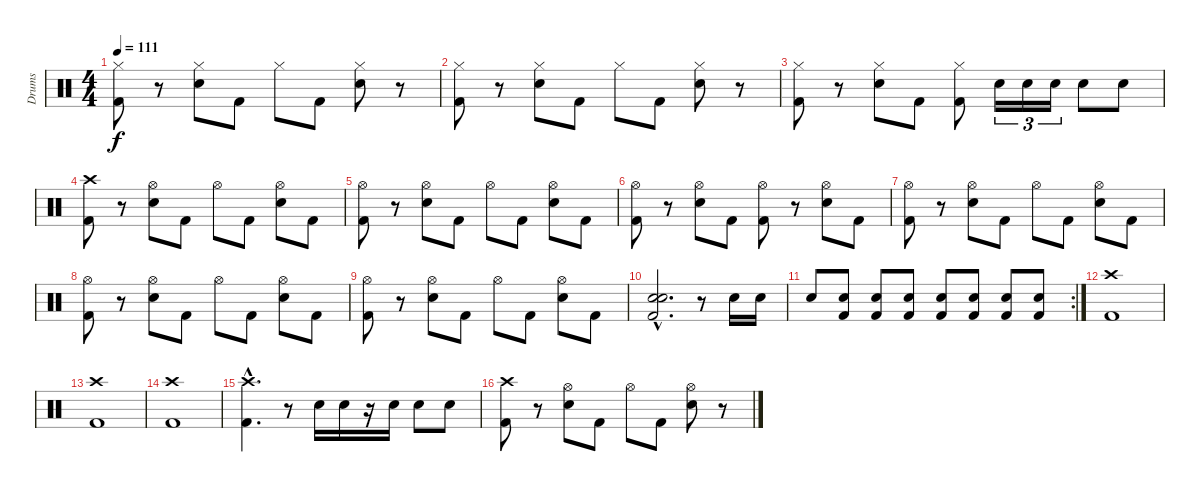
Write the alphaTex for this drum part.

\track ("Drums" "Drums") {instrument percussion}
\staff {score}
\articulation defaults
\ts (4 4)
\tempo 111
\clef neutral
\ks c
("Hi-Hat (closed)" "Kick (hit) 2").8{dy f} r.8 ("Hi-Hat (closed)" "Snare (hit) 2").8 "Kick (hit) 2".8 "Hi-Hat (closed)".8 "Kick (hit) 2".8 ("Hi-Hat (closed)" "Snare (hit) 2").8 r.8 |
("Hi-Hat (closed)" "Kick (hit) 2").8 r.8 ("Hi-Hat (closed)" "Snare (hit) 2").8 "Kick (hit) 2".8 "Hi-Hat (closed)".8 "Kick (hit) 2".8 ("Hi-Hat (closed)" "Snare (hit) 2").8 r.8 |
("Hi-Hat (closed)" "Kick (hit) 2").8 r.8 ("Hi-Hat (closed)" "Snare (hit) 2").8 "Kick (hit) 2".8 ("Hi-Hat (closed)" "Kick (hit) 2").8 "Snare (hit) 2".16{tu (3 2)} "Snare (hit) 2".16{tu (3 2)} "Snare (hit) 2".16{tu (3 2)} "Snare (hit) 2".8 "Snare (hit) 2".8 |
("Crash high (hit)" "Kick (hit) 2").8 r.8 ("Hi-Hat (open)" "Snare (hit) 2").8 "Kick (hit) 2".8 "Hi-Hat (open)".8 "Kick (hit) 2".8 ("Hi-Hat (open)" "Snare (hit) 2").8 "Kick (hit) 2".8 |
("Hi-Hat (open)" "Kick (hit) 2").8 r.8 ("Hi-Hat (open)" "Snare (hit) 2").8 "Kick (hit) 2".8 "Hi-Hat (open)".8 "Kick (hit) 2".8 ("Hi-Hat (open)" "Snare (hit) 2").8 "Kick (hit) 2".8 |
("Hi-Hat (open)" "Kick (hit) 2").8 r.8 ("Hi-Hat (open)" "Snare (hit) 2").8 "Kick (hit) 2".8 ("Hi-Hat (open)" "Kick (hit) 2").8 r.8 ("Hi-Hat (open)" "Snare (hit) 2").8 "Kick (hit) 2".8 |
("Hi-Hat (open)" "Kick (hit) 2").8 r.8 ("Hi-Hat (open)" "Snare (hit) 2").8 "Kick (hit) 2".8 "Hi-Hat (open)".8 "Kick (hit) 2".8 ("Hi-Hat (open)" "Snare (hit) 2").8 "Kick (hit) 2".8 |
("Hi-Hat (open)" "Kick (hit) 2").8 r.8 ("Hi-Hat (open)" "Snare (hit) 2").8 "Kick (hit) 2".8 "Hi-Hat (open)".8 "Kick (hit) 2".8 ("Hi-Hat (open)" "Snare (hit) 2").8 "Kick (hit) 2".8 |
("Hi-Hat (open)" "Kick (hit) 2").8 r.8 ("Hi-Hat (open)" "Snare (hit) 2").8 "Kick (hit) 2".8 "Hi-Hat (open)".8 "Kick (hit) 2".8 ("Hi-Hat (open)" "Snare (hit) 2").8 "Kick (hit) 2".8 |
("Snare (hit) 2"{hac} "Snare (hit) 2"{hac} "Kick (hit) 2"{hac}).2{d} r.8 "Snare (hit) 2".16 "Snare (hit) 2".16 |
\rc 2 "Snare (hit) 2".8
("Snare (hit) 2" "Kick (hit) 2").8 ("Snare (hit) 2" "Kick (hit) 2").8 ("Snare (hit) 2" "Kick (hit) 2").8 ("Snare (hit) 2" "Kick (hit) 2").8 ("Snare (hit) 2" "Kick (hit) 2").8 ("Snare (hit) 2" "Kick (hit) 2").8 ("Snare (hit) 2" "Kick (hit) 2").8 |
("Crash high (hit)" "Kick (hit) 2").1 |
("Crash high (hit)" "Kick (hit) 2").1 |
("Crash high (hit)" "Kick (hit) 2").1 |
("Crash high (hit)"{hac} "Kick (hit) 2"{hac}).4{d} r.8 "Snare (hit) 2".16 "Snare (hit) 2".16 r.16 "Snare (hit) 2".16 "Snare (hit) 2".8 "Snare (hit) 2".8 |
("Crash high (hit)" "Kick (hit) 2").8 r.8 ("Hi-Hat (open)" "Snare (hit) 2").8 "Kick (hit) 2".8 "Hi-Hat (open)".8 "Kick (hit) 2".8 ("Hi-Hat (open)" "Snare (hit) 2").8 r.8
